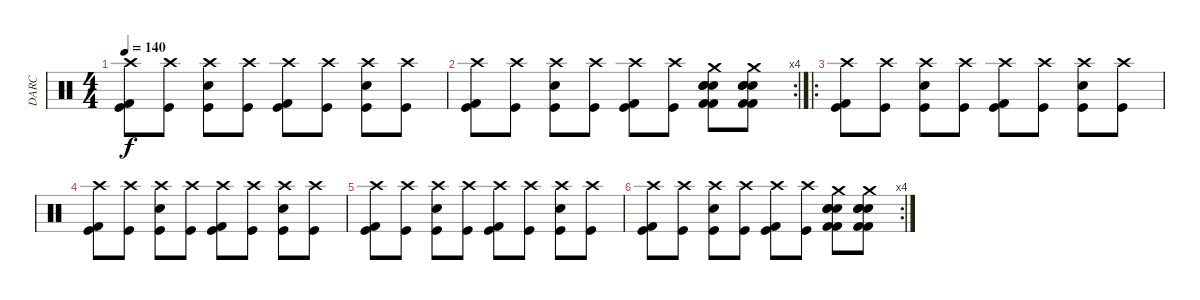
\track ("DARC" "DARC") {instrument percussion}
\staff {score}
\articulation defaults
\ts (4 4)
\tempo 140
\clef neutral
\ks c
("Kick (hit)" "Crash high (hit)" "Kick (hit) 2").8{dy f} ("Kick (hit)" "Crash high (hit)").8 ("Kick (hit)" "Crash high (hit)" "Snare (hit) 2").8 ("Kick (hit)" "Crash high (hit)").8 ("Kick (hit)" "Crash high (hit)" "Kick (hit) 2").8 ("Kick (hit)" "Crash high (hit)").8 ("Kick (hit)" "Crash high (hit)" "Snare (hit) 2").8 ("Kick (hit)" "Crash high (hit)").8 |
\rc 4
("Kick (hit)" "Crash high (hit)" "Kick (hit) 2").8 ("Kick (hit)" "Crash high (hit)").8 ("Kick (hit)" "Crash high (hit)" "Snare (hit) 2").8 ("Kick (hit)" "Crash high (hit)").8 ("Kick (hit)" "Crash high (hit)" "Kick (hit) 2").8 ("Kick (hit)" "Crash high (hit)").8 ("Kick (hit) 2" "Electric Snare (hit)" "Electric Snare (hit)" "Crash medium (hit)" "Electric Snare (hit)" "Kick (hit) 2").8 ("Kick (hit) 2" "Electric Snare (hit)" "Electric Snare (hit)" "Crash medium (hit)" "Electric Snare (hit)" "Kick (hit) 2").8 |
\ro
("Kick (hit)" "Crash high (hit)" "Kick (hit) 2").8 ("Kick (hit)" "Crash high (hit)").8 ("Kick (hit)" "Crash high (hit)" "Snare (hit) 2").8 ("Kick (hit)" "Crash high (hit)").8 ("Kick (hit)" "Crash high (hit)" "Kick (hit) 2").8 ("Kick (hit)" "Crash high (hit)").8 ("Kick (hit)" "Crash high (hit)" "Snare (hit) 2").8 ("Kick (hit)" "Crash high (hit)").8 |
("Kick (hit)" "Crash high (hit)" "Kick (hit) 2").8 ("Kick (hit)" "Crash high (hit)").8 ("Kick (hit)" "Crash high (hit)" "Snare (hit) 2").8 ("Kick (hit)" "Crash high (hit)").8 ("Kick (hit)" "Crash high (hit)" "Kick (hit) 2").8 ("Kick (hit)" "Crash high (hit)").8 ("Kick (hit)" "Crash high (hit)" "Snare (hit) 2").8 ("Kick (hit)" "Crash high (hit)").8 |
("Kick (hit)" "Crash high (hit)" "Kick (hit) 2").8 ("Kick (hit)" "Crash high (hit)").8 ("Kick (hit)" "Crash high (hit)" "Snare (hit) 2").8 ("Kick (hit)" "Crash high (hit)").8 ("Kick (hit)" "Crash high (hit)" "Kick (hit) 2").8 ("Kick (hit)" "Crash high (hit)").8 ("Kick (hit)" "Crash high (hit)" "Snare (hit) 2").8 ("Kick (hit)" "Crash high (hit)").8 |
\rc 4
("Kick (hit)" "Crash high (hit)" "Kick (hit) 2").8 ("Kick (hit)" "Crash high (hit)").8 ("Kick (hit)" "Crash high (hit)" "Snare (hit) 2").8 ("Kick (hit)" "Crash high (hit)").8 ("Kick (hit)" "Crash high (hit)" "Kick (hit) 2").8 ("Kick (hit)" "Crash high (hit)").8 ("Kick (hit) 2" "Electric Snare (hit)" "Electric Snare (hit)" "Crash medium (hit)" "Electric Snare (hit)" "Kick (hit) 2").8 ("Kick (hit) 2" "Electric Snare (hit)" "Electric Snare (hit)" "Crash medium (hit)" "Electric Snare (hit)" "Kick (hit) 2").8
